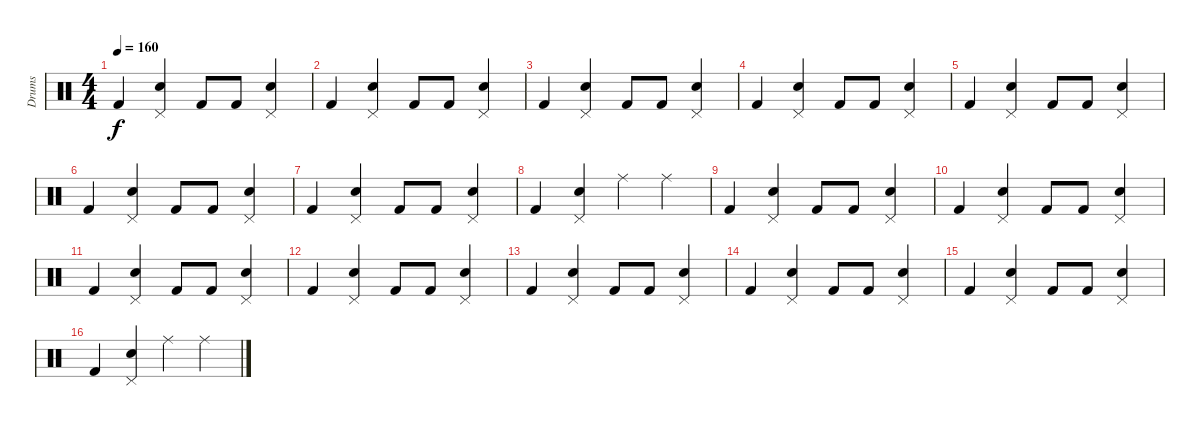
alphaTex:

\track ("Drums" "Drums") {instrument percussion}
\staff {score}
\articulation defaults
\ts (4 4)
\tempo 160
\clef neutral
\ks c "Kick (hit) 2".4{dy f}
("Pedal Hi-Hat (hit)" "Electric Snare (hit)").4 "Kick (hit) 2".8 "Kick (hit) 2".8 ("Pedal Hi-Hat (hit)" "Electric Snare (hit)").4 |
"Kick (hit) 2".4 ("Pedal Hi-Hat (hit)" "Electric Snare (hit)").4 "Kick (hit) 2".8 "Kick (hit) 2".8 ("Pedal Hi-Hat (hit)" "Electric Snare (hit)").4 |
"Kick (hit) 2".4 ("Pedal Hi-Hat (hit)" "Electric Snare (hit)").4 "Kick (hit) 2".8 "Kick (hit) 2".8 ("Pedal Hi-Hat (hit)" "Electric Snare (hit)").4 |
"Kick (hit) 2".4 ("Pedal Hi-Hat (hit)" "Electric Snare (hit)").4 "Kick (hit) 2".8 "Kick (hit) 2".8 ("Pedal Hi-Hat (hit)" "Electric Snare (hit)").4 |
"Kick (hit) 2".4 ("Pedal Hi-Hat (hit)" "Electric Snare (hit)").4 "Kick (hit) 2".8 "Kick (hit) 2".8 ("Pedal Hi-Hat (hit)" "Electric Snare (hit)").4 |
"Kick (hit) 2".4 ("Pedal Hi-Hat (hit)" "Electric Snare (hit)").4 "Kick (hit) 2".8 "Kick (hit) 2".8 ("Pedal Hi-Hat (hit)" "Electric Snare (hit)").4 |
"Kick (hit) 2".4 ("Pedal Hi-Hat (hit)" "Electric Snare (hit)").4 "Kick (hit) 2".8 "Kick (hit) 2".8 ("Pedal Hi-Hat (hit)" "Electric Snare (hit)").4 |
"Kick (hit) 2".4 ("Pedal Hi-Hat (hit)" "Electric Snare (hit)").4 "Ride (middle)".4 "Ride (middle)".4 |
"Kick (hit) 2".4 ("Pedal Hi-Hat (hit)" "Electric Snare (hit)").4 "Kick (hit) 2".8 "Kick (hit) 2".8 ("Pedal Hi-Hat (hit)" "Electric Snare (hit)").4 |
"Kick (hit) 2".4 ("Pedal Hi-Hat (hit)" "Electric Snare (hit)").4 "Kick (hit) 2".8 "Kick (hit) 2".8 ("Pedal Hi-Hat (hit)" "Electric Snare (hit)").4 |
"Kick (hit) 2".4 ("Pedal Hi-Hat (hit)" "Electric Snare (hit)").4 "Kick (hit) 2".8 "Kick (hit) 2".8 ("Pedal Hi-Hat (hit)" "Electric Snare (hit)").4 |
"Kick (hit) 2".4 ("Pedal Hi-Hat (hit)" "Electric Snare (hit)").4 "Kick (hit) 2".8 "Kick (hit) 2".8 ("Pedal Hi-Hat (hit)" "Electric Snare (hit)").4 |
"Kick (hit) 2".4 ("Pedal Hi-Hat (hit)" "Electric Snare (hit)").4 "Kick (hit) 2".8 "Kick (hit) 2".8 ("Pedal Hi-Hat (hit)" "Electric Snare (hit)").4 |
"Kick (hit) 2".4 ("Pedal Hi-Hat (hit)" "Electric Snare (hit)").4 "Kick (hit) 2".8 "Kick (hit) 2".8 ("Pedal Hi-Hat (hit)" "Electric Snare (hit)").4 |
"Kick (hit) 2".4 ("Pedal Hi-Hat (hit)" "Electric Snare (hit)").4 "Kick (hit) 2".8 "Kick (hit) 2".8 ("Pedal Hi-Hat (hit)" "Electric Snare (hit)").4 |
"Kick (hit) 2".4 ("Pedal Hi-Hat (hit)" "Electric Snare (hit)").4 "Ride (middle)".4 "Ride (middle)".4
